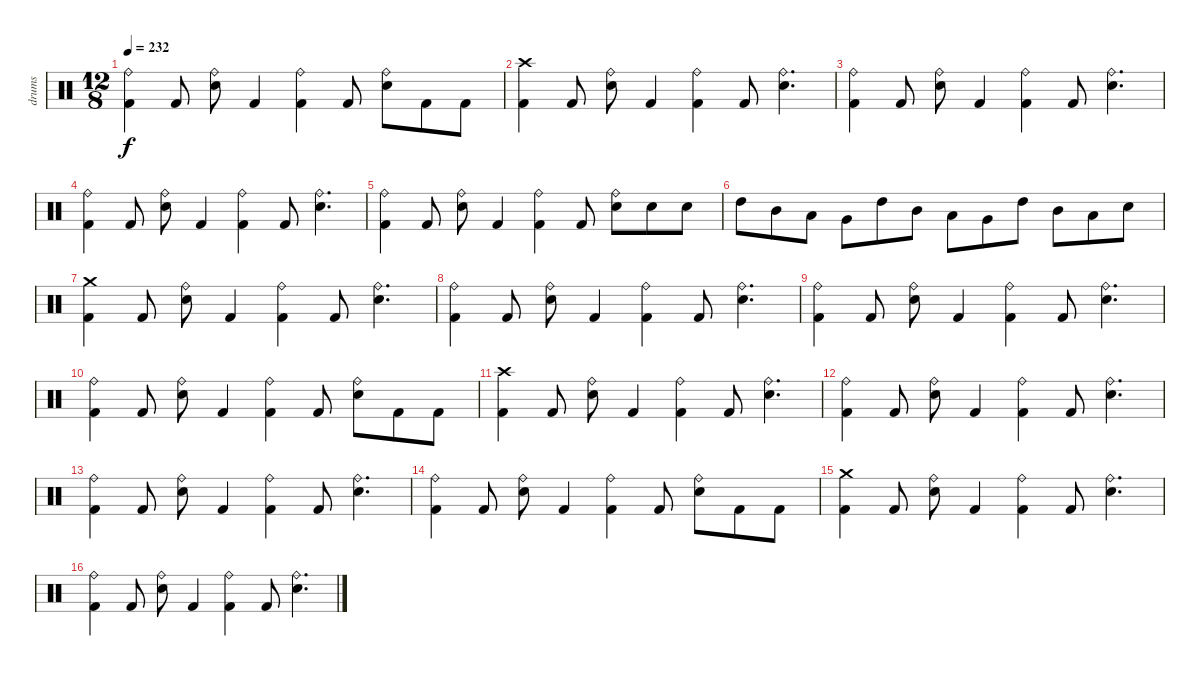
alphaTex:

\track ("drums" "drums") {instrument percussion}
\staff {score}
\articulation defaults
\ts (12 8)
\tempo 232
\clef neutral
\ks c
("Kick (hit) 2" "Ride (bell)").4{dy f} "Kick (hit) 2".8 ("Ride (bell)" "Electric Snare (hit)").8 "Kick (hit) 2".4 ("Ride (bell)" "Kick (hit) 2").4 "Kick (hit) 2".8 ("Ride (bell)" "Electric Snare (hit)").8 "Kick (hit) 2".8 "Kick (hit) 2".8 |
("Crash high (hit)" "Kick (hit) 2").4 "Kick (hit) 2".8 ("Ride (bell)" "Electric Snare (hit)").8 "Kick (hit) 2".4 ("Ride (bell)" "Kick (hit) 2").4 "Kick (hit) 2".8 ("Ride (bell)" "Electric Snare (hit)").4{d} |
("Ride (bell)" "Kick (hit) 2").4 "Kick (hit) 2".8 ("Ride (bell)" "Electric Snare (hit)").8 "Kick (hit) 2".4 ("Ride (bell)" "Kick (hit) 2").4 "Kick (hit) 2".8 ("Ride (bell)" "Electric Snare (hit)").4{d} |
("Kick (hit) 2" "Ride (bell)").4 "Kick (hit) 2".8 ("Ride (bell)" "Electric Snare (hit)").8 "Kick (hit) 2".4 ("Kick (hit) 2" "Ride (bell)").4 "Kick (hit) 2".8 ("Ride (bell)" "Electric Snare (hit)").4{d} |
("Kick (hit) 2" "Ride (bell)").4 "Kick (hit) 2".8 ("Ride (bell)" "Electric Snare (hit)").8 "Kick (hit) 2".4 ("Ride (bell)" "Kick (hit) 2").4 "Kick (hit) 2".8 ("Ride (bell)" "Electric Snare (hit)").8 "Electric Snare (hit)".8 "Electric Snare (hit)".8 |
"High Tom (hit)".8 "Mid Tom (hit)".8 "Low Tom (hit)".8 "Very Low Tom (hit)".8 "High Tom (hit)".8 "Mid Tom (hit)".8 "Low Tom (hit)".8 "Very Low Tom (hit)".8 "High Tom (hit)".8 "Mid Tom (hit)".8 "Low Tom (hit)".8 "Electric Snare (hit)".8 |
("Crash medium (hit)" "Kick (hit) 2").4 "Kick (hit) 2".8 ("Ride (bell)" "Electric Snare (hit)").8 "Kick (hit) 2".4 ("Ride (bell)" "Kick (hit) 2").4 "Kick (hit) 2".8 ("Ride (bell)" "Electric Snare (hit)").4{d} |
("Ride (bell)" "Kick (hit) 2").4 "Kick (hit) 2".8 ("Ride (bell)" "Electric Snare (hit)").8 "Kick (hit) 2".4 ("Ride (bell)" "Kick (hit) 2").4 "Kick (hit) 2".8 ("Ride (bell)" "Electric Snare (hit)").4{d} |
("Kick (hit) 2" "Ride (bell)").4 "Kick (hit) 2".8 ("Ride (bell)" "Electric Snare (hit)").8 "Kick (hit) 2".4 ("Kick (hit) 2" "Ride (bell)").4 "Kick (hit) 2".8 ("Ride (bell)" "Electric Snare (hit)").4{d} |
("Kick (hit) 2" "Ride (bell)").4 "Kick (hit) 2".8 ("Ride (bell)" "Electric Snare (hit)").8 "Kick (hit) 2".4 ("Ride (bell)" "Kick (hit) 2").4 "Kick (hit) 2".8 ("Ride (bell)" "Electric Snare (hit)").8 "Kick (hit) 2".8 "Kick (hit) 2".8 |
("Crash high (hit)" "Kick (hit) 2").4 "Kick (hit) 2".8 ("Ride (bell)" "Electric Snare (hit)").8 "Kick (hit) 2".4 ("Ride (bell)" "Kick (hit) 2").4 "Kick (hit) 2".8 ("Ride (bell)" "Electric Snare (hit)").4{d} |
("Ride (bell)" "Kick (hit) 2").4 "Kick (hit) 2".8 ("Ride (bell)" "Electric Snare (hit)").8 "Kick (hit) 2".4 ("Ride (bell)" "Kick (hit) 2").4 "Kick (hit) 2".8 ("Ride (bell)" "Electric Snare (hit)").4{d} |
("Kick (hit) 2" "Ride (bell)").4 "Kick (hit) 2".8 ("Ride (bell)" "Electric Snare (hit)").8 "Kick (hit) 2".4 ("Kick (hit) 2" "Ride (bell)").4 "Kick (hit) 2".8 ("Ride (bell)" "Electric Snare (hit)").4{d} |
("Kick (hit) 2" "Ride (bell)").4 "Kick (hit) 2".8 ("Ride (bell)" "Electric Snare (hit)").8 "Kick (hit) 2".4 ("Ride (bell)" "Kick (hit) 2").4 "Kick (hit) 2".8 ("Ride (bell)" "Electric Snare (hit)").8 "Kick (hit) 2".8 "Kick (hit) 2".8 |
("Crash medium (hit)" "Kick (hit) 2").4 "Kick (hit) 2".8 ("Ride (bell)" "Electric Snare (hit)").8 "Kick (hit) 2".4 ("Ride (bell)" "Kick (hit) 2").4 "Kick (hit) 2".8 ("Ride (bell)" "Electric Snare (hit)").4{d} |
("Ride (bell)" "Kick (hit) 2").4 "Kick (hit) 2".8 ("Ride (bell)" "Electric Snare (hit)").8 "Kick (hit) 2".4 ("Ride (bell)" "Kick (hit) 2").4 "Kick (hit) 2".8 ("Ride (bell)" "Electric Snare (hit)").4{d}
